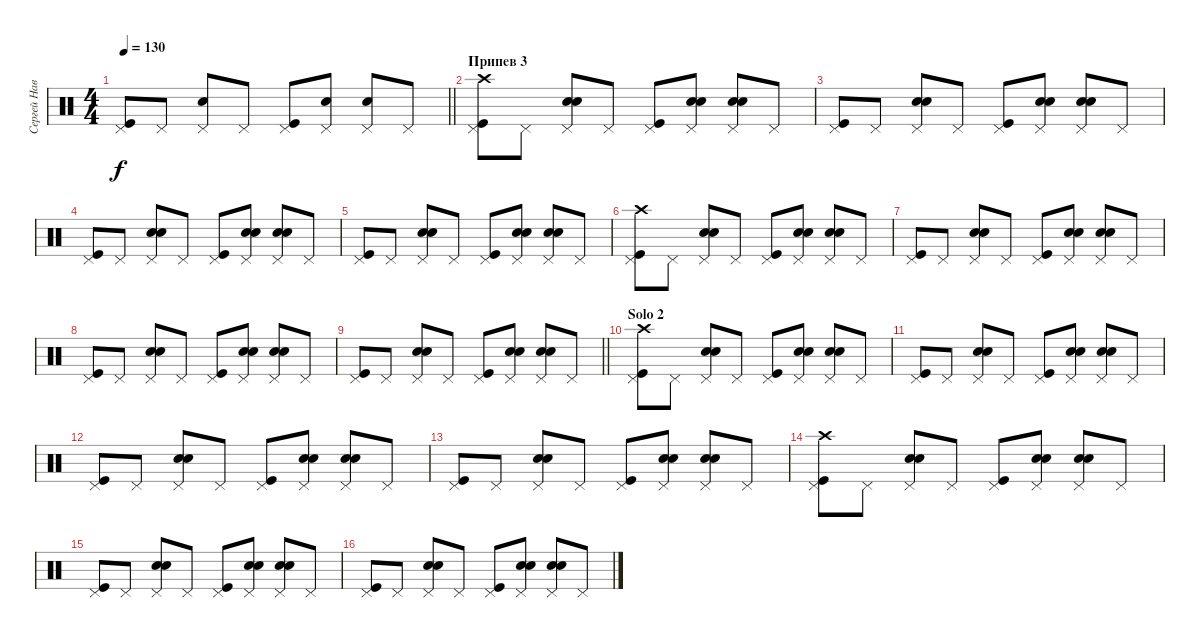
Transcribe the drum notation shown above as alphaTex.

\track ("Сергей Наветный" "Сергей Нав") {instrument percussion}
\staff {score}
\articulation defaults
\ts (4 4)
\tempo 130
\clef neutral
\barLineRight lightlight
\ks c
("Pedal Hi-Hat (hit)" "Kick (hit)").8{dy f} "Pedal Hi-Hat (hit)".8 ("Pedal Hi-Hat (hit)" "Snare (hit) 2").8 "Pedal Hi-Hat (hit)".8 ("Kick (hit)" "Pedal Hi-Hat (hit)").8 ("Snare (hit) 2" "Pedal Hi-Hat (hit)").8 ("Snare (hit) 2" "Pedal Hi-Hat (hit)").8 "Pedal Hi-Hat (hit)".8 |
\section ("" "Припев 3")
("Crash high (hit)" "Kick (hit)" "Pedal Hi-Hat (hit)").8 "Pedal Hi-Hat (hit)".8 ("Hand Clap (hit)" "Snare (hit) 2" "Pedal Hi-Hat (hit)").8 "Pedal Hi-Hat (hit)".8 ("Kick (hit)" "Pedal Hi-Hat (hit)").8 ("Hand Clap (hit)" "Snare (hit) 2" "Pedal Hi-Hat (hit)").8 ("Hand Clap (hit)" "Snare (hit) 2" "Pedal Hi-Hat (hit)").8 "Pedal Hi-Hat (hit)".8 |
("Kick (hit)" "Pedal Hi-Hat (hit)").8 "Pedal Hi-Hat (hit)".8 ("Hand Clap (hit)" "Snare (hit) 2" "Pedal Hi-Hat (hit)").8 "Pedal Hi-Hat (hit)".8 ("Kick (hit)" "Pedal Hi-Hat (hit)").8 ("Hand Clap (hit)" "Snare (hit) 2" "Pedal Hi-Hat (hit)").8 ("Hand Clap (hit)" "Snare (hit) 2" "Pedal Hi-Hat (hit)").8 "Pedal Hi-Hat (hit)".8 |
("Kick (hit)" "Pedal Hi-Hat (hit)").8 "Pedal Hi-Hat (hit)".8 ("Hand Clap (hit)" "Snare (hit) 2" "Pedal Hi-Hat (hit)").8 "Pedal Hi-Hat (hit)".8 ("Kick (hit)" "Pedal Hi-Hat (hit)").8 ("Hand Clap (hit)" "Snare (hit) 2" "Pedal Hi-Hat (hit)").8 ("Hand Clap (hit)" "Snare (hit) 2" "Pedal Hi-Hat (hit)").8 "Pedal Hi-Hat (hit)".8 |
("Kick (hit)" "Pedal Hi-Hat (hit)").8 "Pedal Hi-Hat (hit)".8 ("Hand Clap (hit)" "Snare (hit) 2" "Pedal Hi-Hat (hit)").8 "Pedal Hi-Hat (hit)".8 ("Kick (hit)" "Pedal Hi-Hat (hit)").8 ("Hand Clap (hit)" "Snare (hit) 2" "Pedal Hi-Hat (hit)").8 ("Hand Clap (hit)" "Snare (hit) 2" "Pedal Hi-Hat (hit)").8 "Pedal Hi-Hat (hit)".8 |
("Crash high (hit)" "Kick (hit)" "Pedal Hi-Hat (hit)").8 "Pedal Hi-Hat (hit)".8 ("Hand Clap (hit)" "Snare (hit) 2" "Pedal Hi-Hat (hit)").8 "Pedal Hi-Hat (hit)".8 ("Kick (hit)" "Pedal Hi-Hat (hit)").8 ("Hand Clap (hit)" "Snare (hit) 2" "Pedal Hi-Hat (hit)").8 ("Hand Clap (hit)" "Snare (hit) 2" "Pedal Hi-Hat (hit)").8 "Pedal Hi-Hat (hit)".8 |
("Kick (hit)" "Pedal Hi-Hat (hit)").8 "Pedal Hi-Hat (hit)".8 ("Hand Clap (hit)" "Snare (hit) 2" "Pedal Hi-Hat (hit)").8 "Pedal Hi-Hat (hit)".8 ("Kick (hit)" "Pedal Hi-Hat (hit)").8 ("Hand Clap (hit)" "Snare (hit) 2" "Pedal Hi-Hat (hit)").8 ("Hand Clap (hit)" "Snare (hit) 2" "Pedal Hi-Hat (hit)").8 "Pedal Hi-Hat (hit)".8 |
("Kick (hit)" "Pedal Hi-Hat (hit)").8 "Pedal Hi-Hat (hit)".8 ("Hand Clap (hit)" "Snare (hit) 2" "Pedal Hi-Hat (hit)").8 "Pedal Hi-Hat (hit)".8 ("Kick (hit)" "Pedal Hi-Hat (hit)").8 ("Hand Clap (hit)" "Snare (hit) 2" "Pedal Hi-Hat (hit)").8 ("Hand Clap (hit)" "Snare (hit) 2" "Pedal Hi-Hat (hit)").8 "Pedal Hi-Hat (hit)".8 |
\barLineRight lightlight
("Kick (hit)" "Pedal Hi-Hat (hit)").8 "Pedal Hi-Hat (hit)".8 ("Hand Clap (hit)" "Snare (hit) 2" "Pedal Hi-Hat (hit)").8 "Pedal Hi-Hat (hit)".8 ("Kick (hit)" "Pedal Hi-Hat (hit)").8 ("Hand Clap (hit)" "Snare (hit) 2" "Pedal Hi-Hat (hit)").8 ("Hand Clap (hit)" "Snare (hit) 2" "Pedal Hi-Hat (hit)").8 "Pedal Hi-Hat (hit)".8 |
\section ("" "Solo 2")
("Crash high (hit)" "Kick (hit)" "Pedal Hi-Hat (hit)").8 "Pedal Hi-Hat (hit)".8 ("Hand Clap (hit)" "Snare (hit) 2" "Pedal Hi-Hat (hit)").8 "Pedal Hi-Hat (hit)".8 ("Kick (hit)" "Pedal Hi-Hat (hit)").8 ("Hand Clap (hit)" "Snare (hit) 2" "Pedal Hi-Hat (hit)").8 ("Hand Clap (hit)" "Snare (hit) 2" "Pedal Hi-Hat (hit)").8 "Pedal Hi-Hat (hit)".8 |
("Kick (hit)" "Pedal Hi-Hat (hit)").8 "Pedal Hi-Hat (hit)".8 ("Hand Clap (hit)" "Snare (hit) 2" "Pedal Hi-Hat (hit)").8 "Pedal Hi-Hat (hit)".8 ("Kick (hit)" "Pedal Hi-Hat (hit)").8 ("Hand Clap (hit)" "Snare (hit) 2" "Pedal Hi-Hat (hit)").8 ("Hand Clap (hit)" "Snare (hit) 2" "Pedal Hi-Hat (hit)").8 "Pedal Hi-Hat (hit)".8 |
("Kick (hit)" "Pedal Hi-Hat (hit)").8 "Pedal Hi-Hat (hit)".8 ("Hand Clap (hit)" "Snare (hit) 2" "Pedal Hi-Hat (hit)").8 "Pedal Hi-Hat (hit)".8 ("Kick (hit)" "Pedal Hi-Hat (hit)").8 ("Hand Clap (hit)" "Snare (hit) 2" "Pedal Hi-Hat (hit)").8 ("Hand Clap (hit)" "Snare (hit) 2" "Pedal Hi-Hat (hit)").8 "Pedal Hi-Hat (hit)".8 |
("Kick (hit)" "Pedal Hi-Hat (hit)").8 "Pedal Hi-Hat (hit)".8 ("Hand Clap (hit)" "Snare (hit) 2" "Pedal Hi-Hat (hit)").8 "Pedal Hi-Hat (hit)".8 ("Kick (hit)" "Pedal Hi-Hat (hit)").8 ("Hand Clap (hit)" "Snare (hit) 2" "Pedal Hi-Hat (hit)").8 ("Hand Clap (hit)" "Snare (hit) 2" "Pedal Hi-Hat (hit)").8 "Pedal Hi-Hat (hit)".8 |
("Crash high (hit)" "Kick (hit)" "Pedal Hi-Hat (hit)").8 "Pedal Hi-Hat (hit)".8 ("Hand Clap (hit)" "Snare (hit) 2" "Pedal Hi-Hat (hit)").8 "Pedal Hi-Hat (hit)".8 ("Kick (hit)" "Pedal Hi-Hat (hit)").8 ("Hand Clap (hit)" "Snare (hit) 2" "Pedal Hi-Hat (hit)").8 ("Hand Clap (hit)" "Snare (hit) 2" "Pedal Hi-Hat (hit)").8 "Pedal Hi-Hat (hit)".8 |
("Kick (hit)" "Pedal Hi-Hat (hit)").8 "Pedal Hi-Hat (hit)".8 ("Hand Clap (hit)" "Snare (hit) 2" "Pedal Hi-Hat (hit)").8 "Pedal Hi-Hat (hit)".8 ("Kick (hit)" "Pedal Hi-Hat (hit)").8 ("Hand Clap (hit)" "Snare (hit) 2" "Pedal Hi-Hat (hit)").8 ("Hand Clap (hit)" "Snare (hit) 2" "Pedal Hi-Hat (hit)").8 "Pedal Hi-Hat (hit)".8 |
("Kick (hit)" "Pedal Hi-Hat (hit)").8 "Pedal Hi-Hat (hit)".8 ("Hand Clap (hit)" "Snare (hit) 2" "Pedal Hi-Hat (hit)").8 "Pedal Hi-Hat (hit)".8 ("Kick (hit)" "Pedal Hi-Hat (hit)").8 ("Hand Clap (hit)" "Snare (hit) 2" "Pedal Hi-Hat (hit)").8 ("Hand Clap (hit)" "Snare (hit) 2" "Pedal Hi-Hat (hit)").8 "Pedal Hi-Hat (hit)".8
